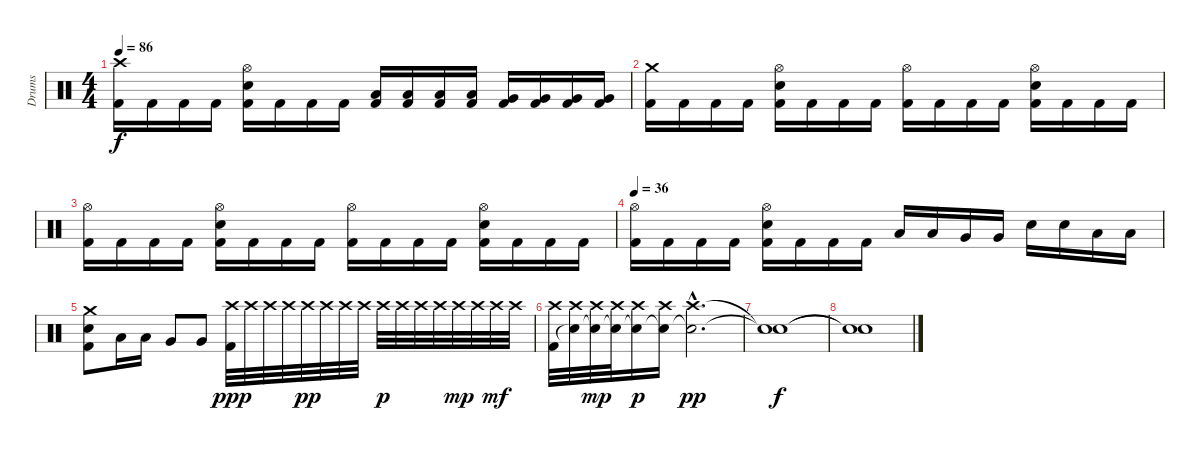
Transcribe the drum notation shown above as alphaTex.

\track ("Drums" "Drums") {instrument percussion}
\staff {score}
\articulation defaults
\ts (4 4)
\tempo 86
\clef neutral
\ks c
("Kick (hit) 2" "Crash high (hit)").16{dy f} "Kick (hit) 2".16 "Kick (hit) 2".16 "Kick (hit) 2".16 ("Kick (hit) 2" "Electric Snare (hit)" "Hi-Hat (open)").16 "Kick (hit) 2".16 "Kick (hit) 2".16 "Kick (hit) 2".16 ("Kick (hit) 2" "Low Tom (hit)").16 ("Kick (hit) 2" "Low Tom (hit)").16 ("Kick (hit) 2" "Low Tom (hit)").16 ("Kick (hit) 2" "Low Tom (hit)").16 ("Kick (hit) 2" "Very Low Tom (hit)").16 ("Kick (hit) 2" "Very Low Tom (hit)").16 ("Kick (hit) 2" "Very Low Tom (hit)").16 ("Kick (hit) 2" "Very Low Tom (hit)").16 |
("Kick (hit) 2" "Crash medium (hit)").16 "Kick (hit) 2".16 "Kick (hit) 2".16 "Kick (hit) 2".16 ("Kick (hit) 2" "Electric Snare (hit)" "Hi-Hat (open)").16 "Kick (hit) 2".16 "Kick (hit) 2".16 "Kick (hit) 2".16 ("Kick (hit) 2" "Hi-Hat (open)").16 "Kick (hit) 2".16 "Kick (hit) 2".16 "Kick (hit) 2".16 ("Kick (hit) 2" "Electric Snare (hit)" "Hi-Hat (open)").16 "Kick (hit) 2".16 "Kick (hit) 2".16 "Kick (hit) 2".16 |
("Kick (hit) 2" "Hi-Hat (open)").16 "Kick (hit) 2".16 "Kick (hit) 2".16 "Kick (hit) 2".16 ("Kick (hit) 2" "Electric Snare (hit)" "Hi-Hat (open)").16 "Kick (hit) 2".16 "Kick (hit) 2".16 "Kick (hit) 2".16 ("Kick (hit) 2" "Hi-Hat (open)").16 "Kick (hit) 2".16 "Kick (hit) 2".16 "Kick (hit) 2".16 ("Kick (hit) 2" "Electric Snare (hit)" "Hi-Hat (open)").16 "Kick (hit) 2".16 "Kick (hit) 2".16 "Kick (hit) 2".16 |
\tempo 36
("Kick (hit) 2" "Hi-Hat (open)").16 "Kick (hit) 2".16 "Kick (hit) 2".16 "Kick (hit) 2".16 ("Kick (hit) 2" "Electric Snare (hit)" "Hi-Hat (open)").16 "Kick (hit) 2".16 "Kick (hit) 2".16 "Kick (hit) 2".16 "Low Tom (hit)".16 "Low Tom (hit)".16 "Very Low Tom (hit)".16 "Very Low Tom (hit)".16 "Electric Snare (hit)".16 "Electric Snare (hit)".16 "Low Tom (hit)".16 "Low Tom (hit)".16 |
("Kick (hit) 2" "Electric Snare (hit)" "Crash medium (hit)").8 "Low Tom (hit)".16 "Low Tom (hit)".16 "Very Low Tom (hit)".8 "Very Low Tom (hit)".8 ("Kick (hit) 2" "Crash high (hit)").32{dy ppp} "Crash high (hit)".32 "Crash high (hit)".32 "Crash high (hit)".32 "Crash high (hit)".32{dy pp} "Crash high (hit)".32 "Crash high (hit)".32 "Crash high (hit)".32 "Crash high (hit)".32{dy p} "Crash high (hit)".32 "Crash high (hit)".32 "Crash high (hit)".32 "Crash high (hit)".32{dy mp} "Crash high (hit)".32 "Crash high (hit)".32{dy mf} "Crash high (hit)".32 |
("Kick (hit) 2" "Crash high (hit)").32 ("Snare (hit)"{t} "Crash high (hit)").32 ("Snare (hit)"{t} "Crash high (hit)").32{dy mp} ("Snare (hit)"{t} "Crash high (hit)").32 ("Snare (hit)"{t} "Crash high (hit)").16{dy p} ("Snare (hit)"{t} "Crash high (hit)").16 ("Snare (hit)"{hac t} "Crash high (hit)"{hac}).2{d dy pp} |
("Snare (hit)"{t} "Snare (hit)"{t}).1{dy f} |
("Snare (hit)"{t} "Snare (hit)"{t}).1
